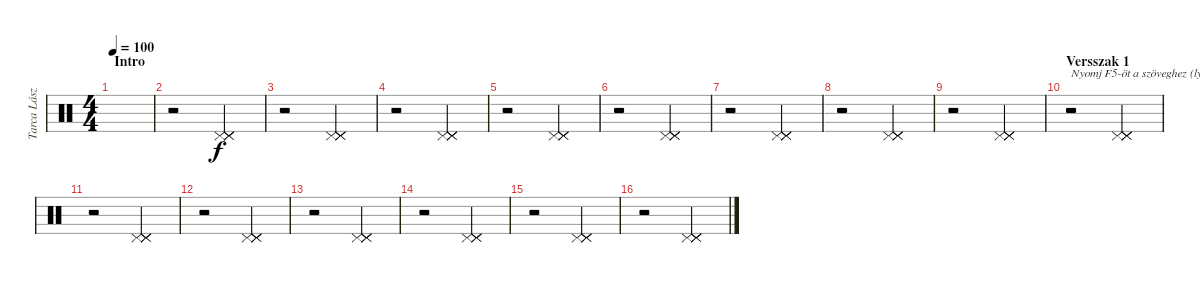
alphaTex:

\track ("Tarca László" "Tarca Lász") {instrument percussion}
\staff {score}
\articulation defaults
\ts (4 4)
\section ("" "Intro")
\tempo 100
\clef neutral
\ks c
|
r.2 ("Pedal Hi-Hat (hit)" "Pedal Hi-Hat (hit)" "Pedal Hi-Hat (hit)" "Pedal Hi-Hat (hit)").2 |
r.2 ("Pedal Hi-Hat (hit)" "Pedal Hi-Hat (hit)" "Pedal Hi-Hat (hit)" "Pedal Hi-Hat (hit)").2 |
r.2 ("Pedal Hi-Hat (hit)" "Pedal Hi-Hat (hit)" "Pedal Hi-Hat (hit)" "Pedal Hi-Hat (hit)").2 |
r.2 ("Pedal Hi-Hat (hit)" "Pedal Hi-Hat (hit)" "Pedal Hi-Hat (hit)" "Pedal Hi-Hat (hit)").2 |
r.2 ("Pedal Hi-Hat (hit)" "Pedal Hi-Hat (hit)" "Pedal Hi-Hat (hit)" "Pedal Hi-Hat (hit)").2 |
r.2 ("Pedal Hi-Hat (hit)" "Pedal Hi-Hat (hit)" "Pedal Hi-Hat (hit)" "Pedal Hi-Hat (hit)").2 |
r.2 ("Pedal Hi-Hat (hit)" "Pedal Hi-Hat (hit)" "Pedal Hi-Hat (hit)" "Pedal Hi-Hat (hit)").2 |
r.2 ("Pedal Hi-Hat (hit)" "Pedal Hi-Hat (hit)" "Pedal Hi-Hat (hit)" "Pedal Hi-Hat (hit)").2 |
\section ("" "Versszak 1")
r.2{txt "Nyomj F5-öt a szöveghez (lyrics)"} ("Pedal Hi-Hat (hit)" "Pedal Hi-Hat (hit)" "Pedal Hi-Hat (hit)" "Pedal Hi-Hat (hit)").2 |
r.2 ("Pedal Hi-Hat (hit)" "Pedal Hi-Hat (hit)" "Pedal Hi-Hat (hit)" "Pedal Hi-Hat (hit)").2 |
r.2 ("Pedal Hi-Hat (hit)" "Pedal Hi-Hat (hit)" "Pedal Hi-Hat (hit)" "Pedal Hi-Hat (hit)").2 |
r.2 ("Pedal Hi-Hat (hit)" "Pedal Hi-Hat (hit)" "Pedal Hi-Hat (hit)" "Pedal Hi-Hat (hit)").2 |
r.2 ("Pedal Hi-Hat (hit)" "Pedal Hi-Hat (hit)" "Pedal Hi-Hat (hit)" "Pedal Hi-Hat (hit)").2 |
r.2 ("Pedal Hi-Hat (hit)" "Pedal Hi-Hat (hit)" "Pedal Hi-Hat (hit)" "Pedal Hi-Hat (hit)").2 |
r.2 ("Pedal Hi-Hat (hit)" "Pedal Hi-Hat (hit)" "Pedal Hi-Hat (hit)" "Pedal Hi-Hat (hit)").2
